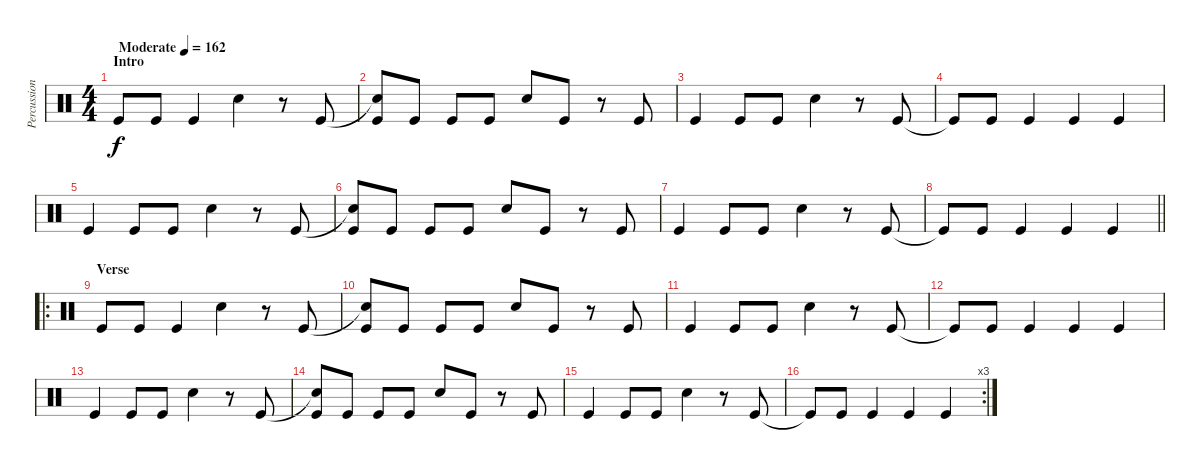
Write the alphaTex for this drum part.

\track ("Percussion" "Percussion") {instrument percussion}
\staff {score}
\articulation defaults
\ts (4 4)
\section ("" "Intro")
\tempo (162 "Moderate")
\clef neutral
\ks c "Kick (hit)".8{dy f} "Kick (hit)".8 "Kick (hit)".4 "Snare (hit) 2".4
r.8 "Kick (hit)".8 |
("Snare (hit)"{t} "Kick (hit)").8 "Kick (hit)".8 "Kick (hit)".8 "Kick (hit)".8 "Snare (hit) 2".8 "Kick (hit)".8 r.8 "Kick (hit)".8 |
"Kick (hit)".4 "Kick (hit)".8 "Kick (hit)".8 "Snare (hit) 2".4 r.8 "Kick (hit)".8 |
"Kick (hit)"{t}.8 "Kick (hit)".8 "Kick (hit)".4 "Kick (hit)".4 "Kick (hit)".4 |
"Kick (hit)".4 "Kick (hit)".8 "Kick (hit)".8 "Snare (hit) 2".4 r.8 "Kick (hit)".8 |
("Snare (hit)"{t} "Kick (hit)").8 "Kick (hit)".8 "Kick (hit)".8 "Kick (hit)".8 "Snare (hit) 2".8 "Kick (hit)".8 r.8 "Kick (hit)".8 |
"Kick (hit)".4 "Kick (hit)".8 "Kick (hit)".8 "Snare (hit) 2".4 r.8 "Kick (hit)".8 |
\barLineRight lightlight "Kick (hit)"{t}.8 "Kick (hit)".8 "Kick (hit)".4 "Kick (hit)".4 "Kick (hit)".4
|
\ro
\section ("" "Verse")
"Kick (hit)".8 "Kick (hit)".8 "Kick (hit)".4 "Snare (hit) 2".4 r.8 "Kick (hit)".8 |
("Snare (hit)"{t} "Kick (hit)").8 "Kick (hit)".8 "Kick (hit)".8 "Kick (hit)".8 "Snare (hit) 2".8 "Kick (hit)".8 r.8 "Kick (hit)".8 |
"Kick (hit)".4 "Kick (hit)".8 "Kick (hit)".8 "Snare (hit) 2".4 r.8 "Kick (hit)".8 |
"Kick (hit)"{t}.8 "Kick (hit)".8 "Kick (hit)".4 "Kick (hit)".4 "Kick (hit)".4 |
"Kick (hit)".4 "Kick (hit)".8 "Kick (hit)".8 "Snare (hit) 2".4 r.8 "Kick (hit)".8 |
("Snare (hit)"{t} "Kick (hit)").8 "Kick (hit)".8 "Kick (hit)".8 "Kick (hit)".8 "Snare (hit) 2".8 "Kick (hit)".8 r.8 "Kick (hit)".8 |
"Kick (hit)".4 "Kick (hit)".8 "Kick (hit)".8 "Snare (hit) 2".4 r.8 "Kick (hit)".8 |
\rc 3 "Kick (hit)"{t}.8 "Kick (hit)".8 "Kick (hit)".4 "Kick (hit)".4 "Kick (hit)".4
